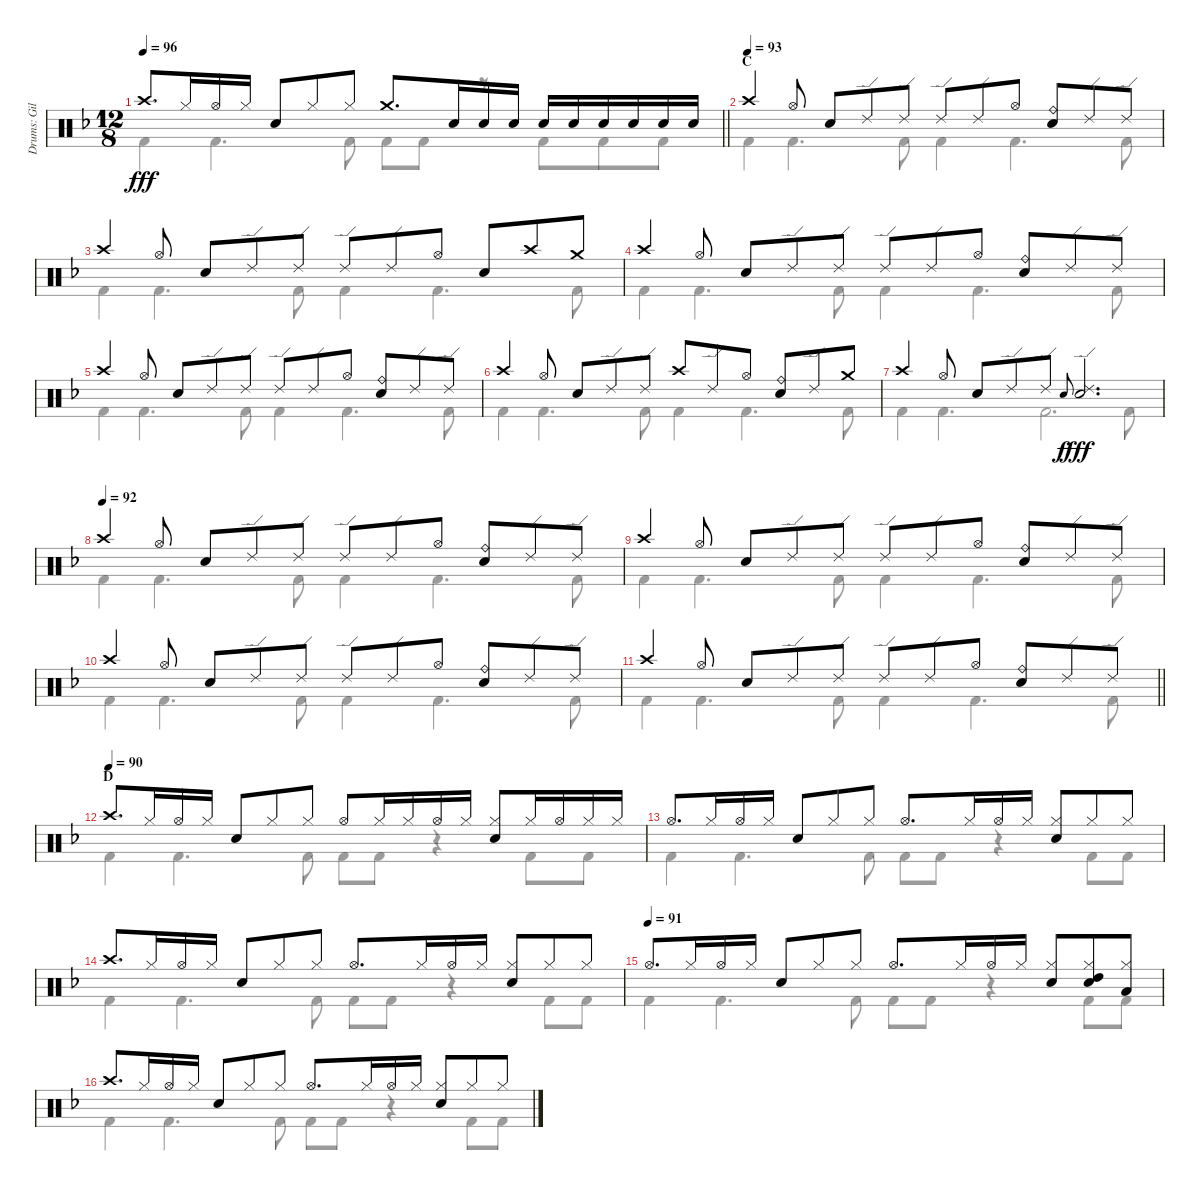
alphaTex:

\track ("Drums: Gil" "Drums: Gil") {instrument percussion}
\staff {score}
\articulation defaults
\voice
\ts (12 8)
\tempo 96
\clef neutral
\barLineRight lightlight
\ks f "Crash high (hit)".8{d dy fff} "Hi-Hat (closed)".16 "Hi-Hat (open)".16 "Hi-Hat (closed)".16 "Snare (hit) 2".8 "Hi-Hat (closed)".8 "Hi-Hat (closed)".8 "Crash medium (hit)".8{d} "Snare (hit) 2".16 "Snare (hit) 2".16 "Snare (hit) 2".16 "Snare (hit) 2".16 "Snare (hit) 2".16 "Snare (hit) 2".16 "Snare (hit) 2".16 "Snare (hit) 2".16 "Snare (hit) 2".16
|
\section ("" "C")
\tempo (93)
"Crash high (hit)".4 "Hi-Hat (open)".8 "Snare (hit) 2".8 "Ride (edge) 2".8 "Ride (edge) 2".8 "Ride (edge) 2".8 "Ride (edge) 2".8 "Hi-Hat (open)".8 ("Ride (bell)" "Snare (hit) 2").8 "Ride (edge) 2".8 "Ride (edge) 2".8 |
"Crash high (hit)".4 "Hi-Hat (open)".8 "Snare (hit) 2".8 "Ride (edge) 2".8 "Ride (edge) 2".8 "Ride (edge) 2".8 "Ride (edge) 2".8 "Hi-Hat (open)".8 "Snare (hit) 2".8 "Crash high (hit)".8 "Crash medium (hit)".8 |
"Crash high (hit)".4 "Hi-Hat (open)".8 "Snare (hit) 2".8 "Ride (edge) 2".8 "Ride (edge) 2".8 "Ride (edge) 2".8 "Ride (edge) 2".8 "Hi-Hat (open)".8 ("Ride (bell)" "Snare (hit) 2").8 "Ride (edge) 2".8 "Ride (edge) 2".8 |
"Crash high (hit)".4 "Hi-Hat (open)".8 "Snare (hit) 2".8 "Ride (edge) 2".8 "Ride (edge) 2".8 "Ride (edge) 2".8 "Ride (edge) 2".8 "Hi-Hat (open)".8 ("Ride (bell)" "Snare (hit) 2").8 "Ride (edge) 2".8 "Ride (edge) 2".8 |
"Crash high (hit)".4 "Hi-Hat (open)".8 "Snare (hit) 2".8 "Ride (edge) 2".8 "Ride (edge) 2".8 "Crash high (hit)".8 "Ride (edge) 2".8 "Hi-Hat (open)".8 ("Ride (bell)" "Snare (hit) 2").8 "Ride (edge) 2".8 "Crash medium (hit)".8 |
"Crash high (hit)".4 "Hi-Hat (open)".8 "Snare (hit) 2".8 "Ride (edge) 2".8 "Ride (edge) 2".8 "Electric Snare (hit)".8{gr onbeat dy f} ("Ride (edge) 2" "Snare (hit) 2").2{d dy fff} |
\tempo (92)
"Crash high (hit)".4 "Hi-Hat (open)".8 "Snare (hit) 2".8 "Ride (edge) 2".8 "Ride (edge) 2".8 "Ride (edge) 2".8 "Ride (edge) 2".8 "Hi-Hat (open)".8 ("Ride (bell)" "Snare (hit) 2").8 "Ride (edge) 2".8 "Ride (edge) 2".8 |
"Crash high (hit)".4 "Hi-Hat (open)".8 "Snare (hit) 2".8 "Ride (edge) 2".8 "Ride (edge) 2".8 "Ride (edge) 2".8 "Ride (edge) 2".8 "Hi-Hat (open)".8 ("Ride (bell)" "Snare (hit) 2").8 "Ride (edge) 2".8 "Ride (edge) 2".8 |
"Crash high (hit)".4 "Hi-Hat (open)".8 "Snare (hit) 2".8 "Ride (edge) 2".8 "Ride (edge) 2".8 "Ride (edge) 2".8 "Ride (edge) 2".8 "Hi-Hat (open)".8 ("Ride (bell)" "Snare (hit) 2").8 "Ride (edge) 2".8 "Ride (edge) 2".8 |
\barLineRight lightlight "Crash high (hit)".4 "Hi-Hat (open)".8 "Snare (hit) 2".8 "Ride (edge) 2".8 "Ride (edge) 2".8 "Ride (edge) 2".8 "Ride (edge) 2".8 "Hi-Hat (open)".8
("Ride (bell)" "Snare (hit) 2").8 "Ride (edge) 2".8 "Ride (edge) 2".8 |
\section ("" "D")
\tempo (90)
"Crash high (hit)".8{d} "Hi-Hat (closed)".16 "Hi-Hat (open)".16 "Hi-Hat (closed)".16 "Snare (hit) 2".8 "Hi-Hat (closed)".8 "Hi-Hat (closed)".8 "Hi-Hat (open)".8 "Hi-Hat (closed)".16 "Hi-Hat (closed)".16 "Hi-Hat (open)".16 "Hi-Hat (closed)".16 ("Hi-Hat (closed)" "Snare (hit) 2").8 "Hi-Hat (closed)".16 "Hi-Hat (open)".16 "Hi-Hat (closed)".16 "Hi-Hat (closed)".16 |
"Hi-Hat (open)".8{d} "Hi-Hat (closed)".16 "Hi-Hat (open)".16 "Hi-Hat (closed)".16 "Snare (hit) 2".8 "Hi-Hat (closed)".8 "Hi-Hat (closed)".8 "Hi-Hat (open)".8{d} "Hi-Hat (closed)".16 "Hi-Hat (open)".16 "Hi-Hat (closed)".16 ("Hi-Hat (closed)" "Snare (hit) 2").8 "Hi-Hat (closed)".8 "Hi-Hat (closed)".8 |
"Crash high (hit)".8{d} "Hi-Hat (closed)".16 "Hi-Hat (open)".16 "Hi-Hat (closed)".16 "Snare (hit) 2".8 "Hi-Hat (closed)".8 "Hi-Hat (closed)".8 "Hi-Hat (open)".8{d} "Hi-Hat (closed)".16 "Hi-Hat (open)".16 "Hi-Hat (closed)".16 ("Hi-Hat (closed)" "Snare (hit) 2").8 "Hi-Hat (closed)".8 "Hi-Hat (closed)".8 |
\tempo (91)
"Hi-Hat (open)".8{d} "Hi-Hat (closed)".16 "Hi-Hat (open)".16 "Hi-Hat (closed)".16 "Snare (hit) 2".8 "Hi-Hat (closed)".8 "Hi-Hat (closed)".8 "Hi-Hat (open)".8{d} "Hi-Hat (closed)".16 "Hi-Hat (open)".16 "Hi-Hat (closed)".16 ("Hi-Hat (closed)" "Snare (hit) 2").8 ("Hi-Hat (closed)" "Electric Snare (hit)" "High Tom (hit)").8 ("Hi-Hat (closed)" "Low Tom (hit)").8 |
"Crash high (hit)".8{d} "Hi-Hat (closed)".16 "Hi-Hat (open)".16 "Hi-Hat (closed)".16 "Snare (hit) 2".8 "Hi-Hat (closed)".8 "Hi-Hat (closed)".8 "Hi-Hat (open)".8{d} "Hi-Hat (closed)".16 "Hi-Hat (open)".16 "Hi-Hat (closed)".16 ("Hi-Hat (closed)" "Snare (hit) 2").8 "Hi-Hat (closed)".8 "Hi-Hat (closed)".8
\voice
\clef neutral
\ottava regular
\simile none
\barLineRight lightlight
\ks f "Kick (hit) 2".4{dy fff} "Kick (hit) 2".4{d} "Kick (hit) 2".8 "Kick (hit) 2".8 "Kick (hit) 2".8
r.8 "Kick (hit) 2".8 "Kick (hit) 2".8 "Kick (hit) 2".8 |
"Kick (hit) 2".4 "Kick (hit) 2".4{d} "Kick (hit) 2".8 "Kick (hit) 2".4 "Kick (hit) 2".4{d} "Kick (hit) 2".8 |
"Kick (hit) 2".4 "Kick (hit) 2".4{d} "Kick (hit) 2".8 "Kick (hit) 2".4 "Kick (hit) 2".4{d} "Kick (hit) 2".8 |
"Kick (hit) 2".4 "Kick (hit) 2".4{d} "Kick (hit) 2".8 "Kick (hit) 2".4 "Kick (hit) 2".4{d} "Kick (hit) 2".8 |
"Kick (hit) 2".4 "Kick (hit) 2".4{d} "Kick (hit) 2".8 "Kick (hit) 2".4 "Kick (hit) 2".4{d} "Kick (hit) 2".8 |
"Kick (hit) 2".4 "Kick (hit) 2".4{d} "Kick (hit) 2".8 "Kick (hit) 2".4 "Kick (hit) 2".4{d} "Kick (hit) 2".8 |
"Kick (hit) 2".4 "Kick (hit) 2".4{d} "Kick (hit) 2".2{d} "Kick (hit) 2".8 |
"Kick (hit) 2".4 "Kick (hit) 2".4{d} "Kick (hit) 2".8 "Kick (hit) 2".4 "Kick (hit) 2".4{d} "Kick (hit) 2".8 |
"Kick (hit) 2".4 "Kick (hit) 2".4{d} "Kick (hit) 2".8 "Kick (hit) 2".4 "Kick (hit) 2".4{d} "Kick (hit) 2".8 |
"Kick (hit) 2".4 "Kick (hit) 2".4{d} "Kick (hit) 2".8 "Kick (hit) 2".4 "Kick (hit) 2".4{d} "Kick (hit) 2".8 |
\barLineRight lightlight "Kick (hit) 2".4 "Kick (hit) 2".4{d} "Kick (hit) 2".8 "Kick (hit) 2".4 "Kick (hit) 2".4{d} "Kick (hit) 2".8
|
"Kick (hit) 2".4 "Kick (hit) 2".4{d} "Kick (hit) 2".8 "Kick (hit) 2".8 "Kick (hit) 2".8 r.4 "Kick (hit) 2".8 "Kick (hit) 2".8 |
"Kick (hit) 2".4 "Kick (hit) 2".4{d} "Kick (hit) 2".8 "Kick (hit) 2".8 "Kick (hit) 2".8 r.4 "Kick (hit) 2".8 "Kick (hit) 2".8 |
"Kick (hit) 2".4 "Kick (hit) 2".4{d} "Kick (hit) 2".8 "Kick (hit) 2".8 "Kick (hit) 2".8 r.4 "Kick (hit) 2".8 "Kick (hit) 2".8 |
"Kick (hit) 2".4 "Kick (hit) 2".4{d} "Kick (hit) 2".8 "Kick (hit) 2".8 "Kick (hit) 2".8 r.4 "Kick (hit) 2".8 "Kick (hit) 2".8 |
"Kick (hit) 2".4 "Kick (hit) 2".4{d} "Kick (hit) 2".8 "Kick (hit) 2".8 "Kick (hit) 2".8 r.4 "Kick (hit) 2".8 "Kick (hit) 2".8
